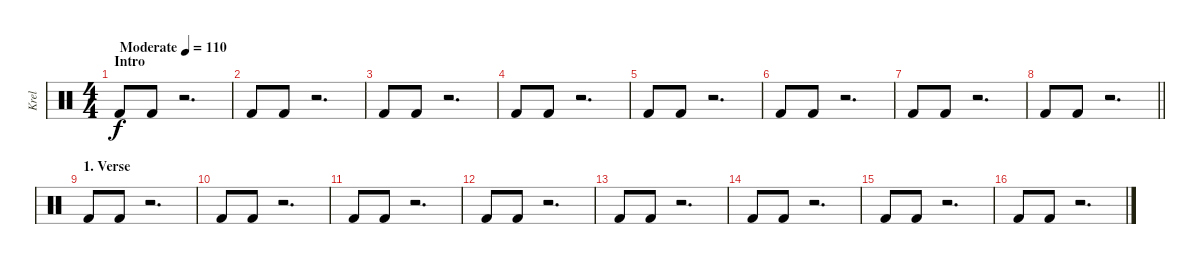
\track ("Krel" "Krel") {instrument percussion}
\staff {score}
\articulation defaults
\ts (4 4)
\section ("" "Intro")
\tempo (110 "Moderate")
\clef neutral
\ks c "Kick (hit) 2".8{dy f} "Kick (hit) 2".8
r.2{d} |
"Kick (hit) 2".8 "Kick (hit) 2".8 r.2{d} |
"Kick (hit) 2".8 "Kick (hit) 2".8 r.2{d} |
"Kick (hit) 2".8 "Kick (hit) 2".8 r.2{d} |
"Kick (hit) 2".8 "Kick (hit) 2".8 r.2{d} |
"Kick (hit) 2".8 "Kick (hit) 2".8 r.2{d} |
"Kick (hit) 2".8 "Kick (hit) 2".8 r.2{d} |
\barLineRight lightlight "Kick (hit) 2".8 "Kick (hit) 2".8
r.2{d} |
\section ("" "1. Verse")
"Kick (hit) 2".8 "Kick (hit) 2".8 r.2{d} |
"Kick (hit) 2".8 "Kick (hit) 2".8 r.2{d} |
"Kick (hit) 2".8 "Kick (hit) 2".8 r.2{d} |
"Kick (hit) 2".8 "Kick (hit) 2".8 r.2{d} |
"Kick (hit) 2".8 "Kick (hit) 2".8 r.2{d} |
"Kick (hit) 2".8 "Kick (hit) 2".8 r.2{d} |
"Kick (hit) 2".8 "Kick (hit) 2".8 r.2{d} |
"Kick (hit) 2".8 "Kick (hit) 2".8 r.2{d}
